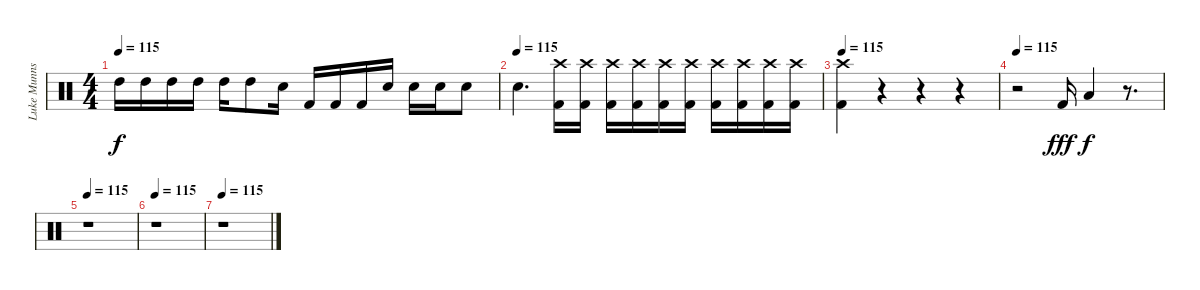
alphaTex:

\track ("Luke Munns" "Luke Munns") {instrument percussion}
\staff {score}
\articulation defaults
\ts (4 4)
\tempo 115
\clef neutral
\ks c "High Tom (hit)".16{dy f} "High Tom (hit)".16 "High Tom (hit)".16 "High Tom (hit)".16 "High Tom (hit)".16 "High Tom (hit)".8 "Electric Snare (hit)".16 "Kick (hit) 2".16 "Kick (hit) 2".16 "Kick (hit) 2".16 "Electric Snare (hit)".16 "Electric Snare (hit)".16 "Electric Snare (hit)".16 "Electric Snare (hit)".8
|
\tempo (115)
"Electric Snare (hit)".4{d} ("Kick (hit) 2" "Crash high (hit)").16 ("Kick (hit) 2" "Crash high (hit)").16 ("Kick (hit) 2" "Crash high (hit)").16 ("Kick (hit) 2" "Crash high (hit)").16 ("Kick (hit) 2" "Crash high (hit)").16 ("Kick (hit) 2" "Crash high (hit)").16 ("Kick (hit) 2" "Crash high (hit)").16 ("Kick (hit) 2" "Crash high (hit)").16 ("Kick (hit) 2" "Crash high (hit)").16 ("Kick (hit) 2" "Crash high (hit)").16 |
\tempo 115
("Kick (hit) 2" "Crash high (hit)").4 r.4 r.4 r.4 |
\tempo 115
r.2 "Kick (hit) 2".16{dy fff} "Low Floor Tom (hit)".4{dy f} r.8{d} |
\tempo 115
r.1 |
\tempo 115
r.1 |
\tempo 115
r.1
